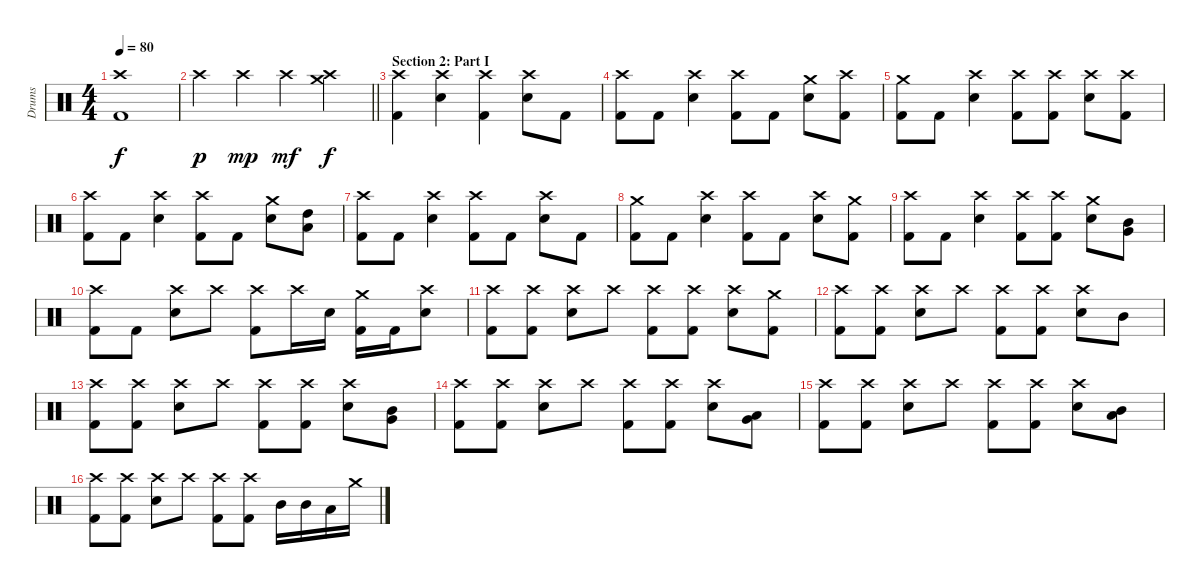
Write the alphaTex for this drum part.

\track ("Drums" "Drums") {instrument percussion}
\staff {score}
\articulation defaults
\ts (4 4)
\tempo 80
\clef neutral
\ks c
("Crash high (hit)" "Kick (hit) 2").1{dy f} |
\barLineRight lightlight "Crash high (hit)".4{dy p} "Crash high (hit)".4{dy mp} "Crash high (hit)".4{dy mf}
("Crash high (hit)" "Crash medium (hit)").4{dy f} |
\section ("" "Section 2: Part I")
("Crash high (hit)" "Kick (hit) 2").4{volume 11} ("Crash high (hit)" "Electric Snare (hit)").4 ("Crash high (hit)" "Kick (hit) 2").4 ("Crash high (hit)" "Electric Snare (hit)").8 "Kick (hit) 2".8 |
("Crash high (hit)" "Kick (hit) 2").8 "Kick (hit) 2".8 ("Crash high (hit)" "Electric Snare (hit)").4 ("Crash high (hit)" "Kick (hit) 2").8 "Kick (hit) 2".8 ("Crash medium (hit)" "Electric Snare (hit)").8 ("Crash high (hit)" "Kick (hit) 2").8 |
("Crash medium (hit)" "Kick (hit) 2").8 "Kick (hit) 2".8 ("Crash high (hit)" "Electric Snare (hit)").4 ("Crash high (hit)" "Kick (hit) 2").8 ("Crash high (hit)" "Kick (hit) 2").8 ("Crash high (hit)" "Electric Snare (hit)").8 ("Crash high (hit)" "Kick (hit) 2").8 |
("Crash high (hit)" "Kick (hit) 2").8 "Kick (hit) 2".8 ("Crash high (hit)" "Electric Snare (hit)").4 ("Crash high (hit)" "Kick (hit) 2").8 "Kick (hit) 2".8 ("Crash medium (hit)" "Electric Snare (hit)").8 ("High Tom (hit)" "Low Tom (hit)").8 |
("Crash high (hit)" "Kick (hit) 2").8 "Kick (hit) 2".8 ("Crash high (hit)" "Electric Snare (hit)").4 ("Crash high (hit)" "Kick (hit) 2").8 "Kick (hit) 2".8 ("Crash high (hit)" "Electric Snare (hit)").8 "Kick (hit) 2".8 |
("Crash medium (hit)" "Kick (hit) 2").8 "Kick (hit) 2".8 ("Crash high (hit)" "Electric Snare (hit)").4 ("Crash high (hit)" "Kick (hit) 2").8 "Kick (hit) 2".8 ("Crash high (hit)" "Electric Snare (hit)").8 ("Crash medium (hit)" "Kick (hit) 2").8 |
("Crash high (hit)" "Kick (hit) 2").8 "Kick (hit) 2".8 ("Crash high (hit)" "Electric Snare (hit)").4 ("Crash high (hit)" "Kick (hit) 2").8 ("Crash high (hit)" "Kick (hit) 2").8 ("Crash medium (hit)" "Electric Snare (hit)").8 ("Mid Tom (hit)" "Very Low Tom (hit)").8 |
("Crash high (hit)" "Kick (hit) 2").8 "Kick (hit) 2".8 ("Crash high (hit)" "Electric Snare (hit)").8 "Crash high (hit)".8 ("Crash high (hit)" "Kick (hit) 2").8 "Crash high (hit)".16 "Electric Snare (hit)".16 ("Crash medium (hit)" "Kick (hit) 2").16 "Kick (hit) 2".16 ("Crash high (hit)" "Electric Snare (hit)").8 |
("Crash high (hit)" "Kick (hit) 2").8 ("Crash high (hit)" "Kick (hit) 2").8 ("Crash high (hit)" "Electric Snare (hit)").8 "Crash high (hit)".8 ("Crash high (hit)" "Kick (hit) 2").8 ("Crash high (hit)" "Kick (hit) 2").8 ("Crash high (hit)" "Electric Snare (hit)").8 ("Crash medium (hit)" "Kick (hit) 2").8 |
("Crash high (hit)" "Kick (hit) 2").8 ("Crash high (hit)" "Kick (hit) 2").8 ("Crash high (hit)" "Electric Snare (hit)").8 "Crash high (hit)".8 ("Crash high (hit)" "Kick (hit) 2").8 ("Crash high (hit)" "Kick (hit) 2").8 ("Crash high (hit)" "Electric Snare (hit)").8 "Mid Tom (hit)".8 |
("Crash high (hit)" "Kick (hit) 2").8 ("Crash high (hit)" "Kick (hit) 2").8 ("Crash high (hit)" "Electric Snare (hit)").8 "Crash high (hit)".8 ("Crash high (hit)" "Kick (hit) 2").8 ("Crash high (hit)" "Kick (hit) 2").8 ("Crash high (hit)" "Electric Snare (hit)").8 ("Mid Tom (hit)" "Very Low Tom (hit)").8 |
("Crash high (hit)" "Kick (hit) 2").8 ("Crash high (hit)" "Kick (hit) 2").8 ("Crash high (hit)" "Electric Snare (hit)").8 "Crash high (hit)".8 ("Crash high (hit)" "Kick (hit) 2").8 ("Crash high (hit)" "Kick (hit) 2").8 ("Crash high (hit)" "Electric Snare (hit)").8 ("Low Tom (hit)" "Very Low Tom (hit)").8 |
("Crash high (hit)" "Kick (hit) 2").8 ("Crash high (hit)" "Kick (hit) 2").8 ("Crash high (hit)" "Electric Snare (hit)").8 "Crash high (hit)".8 ("Crash high (hit)" "Kick (hit) 2").8 ("Crash high (hit)" "Kick (hit) 2").8 ("Crash high (hit)" "Electric Snare (hit)").8 ("Mid Tom (hit)" "Low Tom (hit)").8 |
("Crash high (hit)" "Kick (hit) 2").8 ("Crash high (hit)" "Kick (hit) 2").8 ("Crash high (hit)" "Electric Snare (hit)").8 "Crash high (hit)".8 ("Crash high (hit)" "Kick (hit) 2").8 ("Crash high (hit)" "Kick (hit) 2").8 "Mid Tom (hit)".16 "Mid Tom (hit)".16 "Low Tom (hit)".16 "Crash medium (hit)".16
